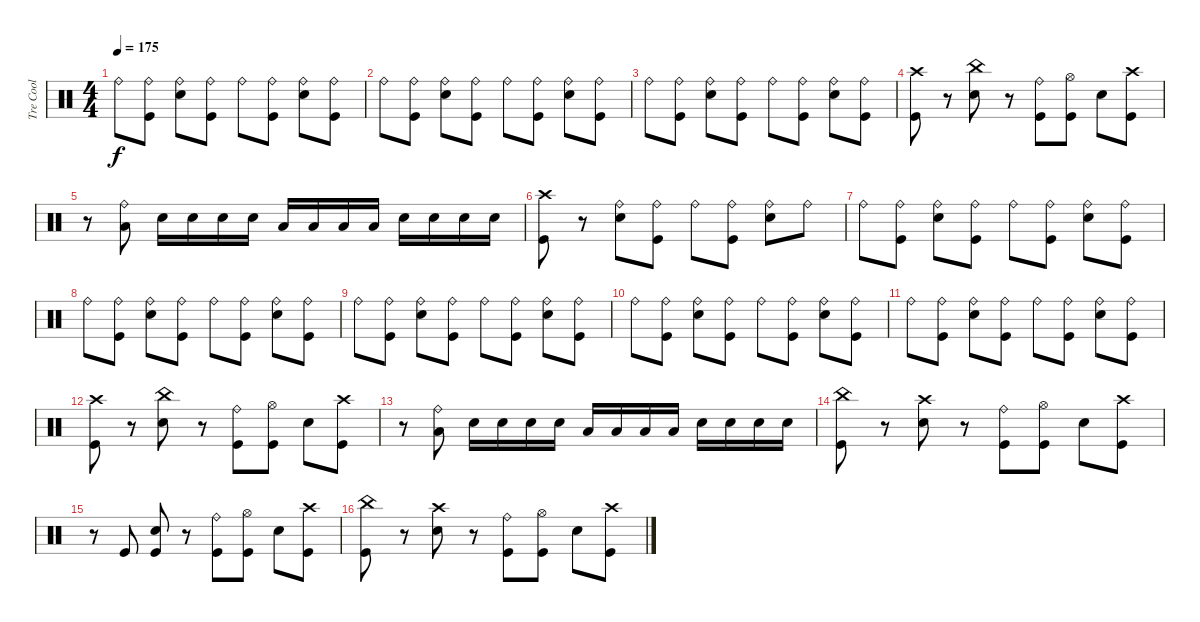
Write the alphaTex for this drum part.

\track ("Tre Cool" "Tre Cool") {instrument percussion}
\staff {score}
\articulation defaults
\ts (4 4)
\tempo 175
\clef neutral
\ks c "Ride (bell)".8{dy f}
("Kick (hit)" "Ride (bell)").8 ("Snare (hit) 2" "Ride (bell)").8 ("Kick (hit)" "Ride (bell)").8 "Ride (bell)".8 ("Kick (hit)" "Ride (bell)").8 ("Snare (hit) 2" "Ride (bell)").8 ("Kick (hit)" "Ride (bell)").8 |
"Ride (bell)".8 ("Kick (hit)" "Ride (bell)").8 ("Snare (hit) 2" "Ride (bell)").8 ("Kick (hit)" "Ride (bell)").8 "Ride (bell)".8 ("Kick (hit)" "Ride (bell)").8 ("Snare (hit) 2" "Ride (bell)").8 ("Kick (hit)" "Ride (bell)").8 |
"Ride (bell)".8 ("Kick (hit)" "Ride (bell)").8 ("Snare (hit) 2" "Ride (bell)").8 ("Kick (hit)" "Ride (bell)").8 "Ride (bell)".8 ("Kick (hit)" "Ride (bell)").8 ("Snare (hit) 2" "Ride (bell)").8 ("Kick (hit)" "Ride (bell)").8 |
("Kick (hit)" "Crash high (hit)").8 r.8 ("Snare (hit) 2" "China (hit)").8 r.8 ("Kick (hit)" "Ride (bell)").8 ("Kick (hit)" "Hi-Hat (open)").8 "Snare (hit) 2".8 ("Kick (hit)" "Crash high (hit)").8 |
r.8 ("Low Floor Tom (hit)" "Ride (bell)").8 "Snare (hit) 2".16 "Snare (hit) 2".16 "Snare (hit) 2".16 "Snare (hit) 2".16 "Low Tom (hit)".16 "Low Tom (hit)".16 "Low Tom (hit)".16 "Low Tom (hit)".16 "Snare (hit) 2".16 "Snare (hit) 2".16 "Snare (hit) 2".16 "Snare (hit) 2".16 |
("Kick (hit)" "Crash high (hit)").8 r.8 ("Snare (hit) 2" "Ride (bell)").8 ("Kick (hit)" "Ride (bell)").8 "Ride (bell)".8 ("Kick (hit)" "Ride (bell)").8 ("Snare (hit) 2" "Ride (bell)").8 "Ride (bell)".8 |
"Ride (bell)".8 ("Kick (hit)" "Ride (bell)").8 ("Snare (hit) 2" "Ride (bell)").8 ("Kick (hit)" "Ride (bell)").8 "Ride (bell)".8 ("Kick (hit)" "Ride (bell)").8 ("Snare (hit) 2" "Ride (bell)").8 ("Kick (hit)" "Ride (bell)").8 |
"Ride (bell)".8 ("Kick (hit)" "Ride (bell)").8 ("Snare (hit) 2" "Ride (bell)").8 ("Kick (hit)" "Ride (bell)").8 "Ride (bell)".8 ("Kick (hit)" "Ride (bell)").8 ("Snare (hit) 2" "Ride (bell)").8 ("Kick (hit)" "Ride (bell)").8 |
"Ride (bell)".8 ("Kick (hit)" "Ride (bell)").8 ("Snare (hit) 2" "Ride (bell)").8 ("Kick (hit)" "Ride (bell)").8 "Ride (bell)".8 ("Kick (hit)" "Ride (bell)").8 ("Snare (hit) 2" "Ride (bell)").8 ("Kick (hit)" "Ride (bell)").8 |
"Ride (bell)".8 ("Kick (hit)" "Ride (bell)").8 ("Snare (hit) 2" "Ride (bell)").8 ("Kick (hit)" "Ride (bell)").8 "Ride (bell)".8 ("Kick (hit)" "Ride (bell)").8 ("Snare (hit) 2" "Ride (bell)").8 ("Kick (hit)" "Ride (bell)").8 |
"Ride (bell)".8 ("Kick (hit)" "Ride (bell)").8 ("Snare (hit) 2" "Ride (bell)").8 ("Kick (hit)" "Ride (bell)").8 "Ride (bell)".8 ("Kick (hit)" "Ride (bell)").8 ("Snare (hit) 2" "Ride (bell)").8 ("Kick (hit)" "Ride (bell)").8 |
("Kick (hit)" "Crash high (hit)").8 r.8 ("Snare (hit) 2" "China (hit)").8 r.8 ("Kick (hit)" "Ride (bell)").8 ("Kick (hit)" "Hi-Hat (open)").8 "Snare (hit) 2".8 ("Kick (hit)" "Crash high (hit)").8 |
r.8 ("Low Floor Tom (hit)" "Ride (bell)").8 "Snare (hit) 2".16 "Snare (hit) 2".16 "Snare (hit) 2".16 "Snare (hit) 2".16 "Low Tom (hit)".16 "Low Tom (hit)".16 "Low Tom (hit)".16 "Low Tom (hit)".16 "Snare (hit) 2".16 "Snare (hit) 2".16 "Snare (hit) 2".16 "Snare (hit) 2".16 |
("Kick (hit)" "China (hit)").8 r.8 ("Snare (hit) 2" "Crash high (hit)").8 r.8 ("Kick (hit)" "Ride (bell)").8 ("Kick (hit)" "Hi-Hat (open)").8 "Snare (hit) 2".8 ("Kick (hit)" "Crash high (hit)").8 |
r.8 "Kick (hit)".8 ("Snare (hit) 2" "Kick (hit)").8 r.8 ("Kick (hit)" "Ride (bell)").8 ("Kick (hit)" "Hi-Hat (open)").8 "Snare (hit) 2".8 ("Kick (hit)" "Crash high (hit)").8 |
("Kick (hit)" "China (hit)").8 r.8 ("Snare (hit) 2" "Crash high (hit)").8 r.8 ("Kick (hit)" "Ride (bell)").8 ("Kick (hit)" "Hi-Hat (open)").8 "Snare (hit) 2".8 ("Kick (hit)" "Crash high (hit)").8
